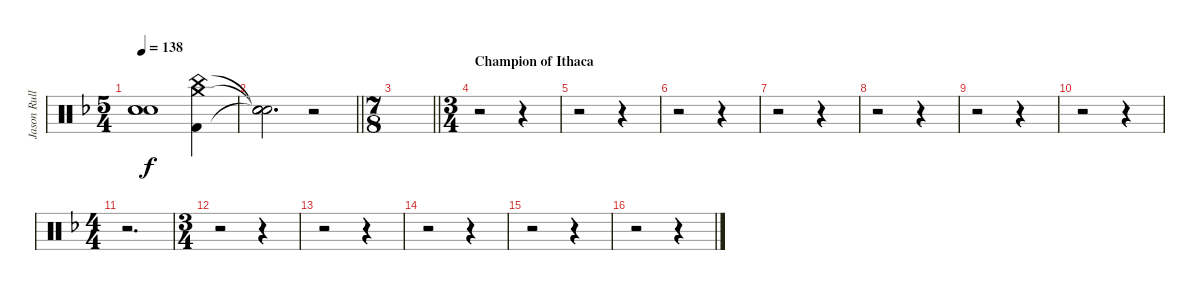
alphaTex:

\track ("Jason Rullo (drums)" "Jason Rull") {instrument percussion}
\staff {score}
\articulation defaults
\ts (5 4)
\tempo 138
\clef neutral
\ks dminor
("Snare (hit)"{t} "Snare (hit)"{t} "Snare (hit)"{t}).1{dy f} ("Crash medium (hit)" "China (hit)" "Kick (hit) 2").4 |
\barLineRight lightlight
("Snare (hit)"{t} "Snare (hit)"{t} "Snare (hit)"{t}).2{d} r.2 |
\ts (7 8)
\barLineRight lightlight
|
\ts (3 4)
\section ("" "Champion of Ithaca")
r.2 r.4 |
r.2 r.4 |
r.2 r.4 |
r.2 r.4 |
r.2 r.4 |
r.2 r.4 |
r.2 r.4 |
\ts (4 4)
r.2{d} |
\ts (3 4)
r.2 r.4 |
r.2 r.4 |
r.2 r.4 |
r.2 r.4 |
r.2 r.4
